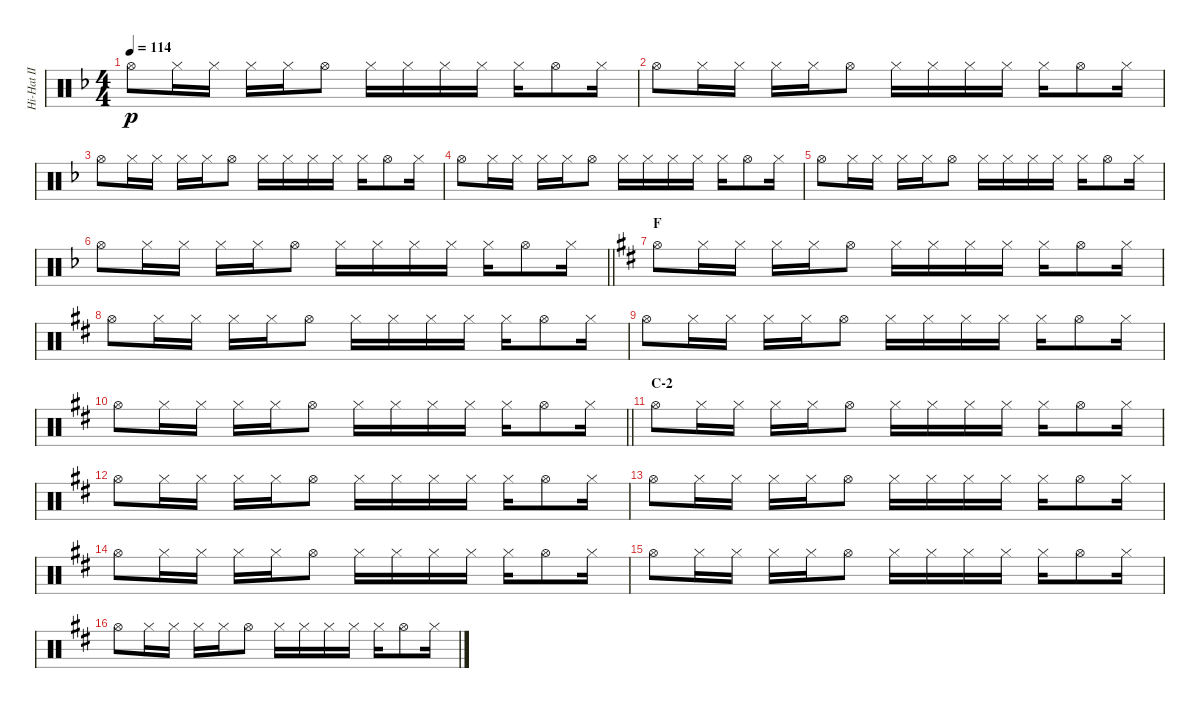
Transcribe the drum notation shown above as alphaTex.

\track ("Hi-Hat II" "Hi-Hat II") {instrument percussion}
\staff {score}
\articulation defaults
\ts (4 4)
\tempo 114
\clef neutral
\ks f "Hi-Hat (open)".8{dy p} "Hi-Hat (closed)".16 "Hi-Hat (closed)".16 "Hi-Hat (closed)".16 "Hi-Hat (closed)".16 "Hi-Hat (open)".8 "Hi-Hat (closed)".16 "Hi-Hat (closed)".16 "Hi-Hat (closed)".16 "Hi-Hat (closed)".16 "Hi-Hat (closed)".16 "Hi-Hat (open)".8 "Hi-Hat (closed)".16
|
"Hi-Hat (open)".8 "Hi-Hat (closed)".16 "Hi-Hat (closed)".16 "Hi-Hat (closed)".16 "Hi-Hat (closed)".16 "Hi-Hat (open)".8 "Hi-Hat (closed)".16 "Hi-Hat (closed)".16 "Hi-Hat (closed)".16 "Hi-Hat (closed)".16 "Hi-Hat (closed)".16 "Hi-Hat (open)".8 "Hi-Hat (closed)".16 |
"Hi-Hat (open)".8 "Hi-Hat (closed)".16 "Hi-Hat (closed)".16 "Hi-Hat (closed)".16 "Hi-Hat (closed)".16 "Hi-Hat (open)".8 "Hi-Hat (closed)".16 "Hi-Hat (closed)".16 "Hi-Hat (closed)".16 "Hi-Hat (closed)".16 "Hi-Hat (closed)".16 "Hi-Hat (open)".8 "Hi-Hat (closed)".16 |
"Hi-Hat (open)".8 "Hi-Hat (closed)".16 "Hi-Hat (closed)".16 "Hi-Hat (closed)".16 "Hi-Hat (closed)".16 "Hi-Hat (open)".8 "Hi-Hat (closed)".16 "Hi-Hat (closed)".16 "Hi-Hat (closed)".16 "Hi-Hat (closed)".16 "Hi-Hat (closed)".16 "Hi-Hat (open)".8 "Hi-Hat (closed)".16 |
"Hi-Hat (open)".8 "Hi-Hat (closed)".16 "Hi-Hat (closed)".16 "Hi-Hat (closed)".16 "Hi-Hat (closed)".16 "Hi-Hat (open)".8 "Hi-Hat (closed)".16 "Hi-Hat (closed)".16 "Hi-Hat (closed)".16 "Hi-Hat (closed)".16 "Hi-Hat (closed)".16 "Hi-Hat (open)".8 "Hi-Hat (closed)".16 |
\barLineRight lightlight "Hi-Hat (open)".8 "Hi-Hat (closed)".16 "Hi-Hat (closed)".16 "Hi-Hat (closed)".16 "Hi-Hat (closed)".16 "Hi-Hat (open)".8 "Hi-Hat (closed)".16 "Hi-Hat (closed)".16 "Hi-Hat (closed)".16 "Hi-Hat (closed)".16 "Hi-Hat (closed)".16 "Hi-Hat (open)".8 "Hi-Hat (closed)".16
|
\section ("" "F")
\ks d "Hi-Hat (open)".8 "Hi-Hat (closed)".16 "Hi-Hat (closed)".16 "Hi-Hat (closed)".16 "Hi-Hat (closed)".16 "Hi-Hat (open)".8 "Hi-Hat (closed)".16 "Hi-Hat (closed)".16 "Hi-Hat (closed)".16 "Hi-Hat (closed)".16 "Hi-Hat (closed)".16 "Hi-Hat (open)".8 "Hi-Hat (closed)".16
|
"Hi-Hat (open)".8 "Hi-Hat (closed)".16 "Hi-Hat (closed)".16 "Hi-Hat (closed)".16 "Hi-Hat (closed)".16 "Hi-Hat (open)".8 "Hi-Hat (closed)".16 "Hi-Hat (closed)".16 "Hi-Hat (closed)".16 "Hi-Hat (closed)".16 "Hi-Hat (closed)".16 "Hi-Hat (open)".8 "Hi-Hat (closed)".16 |
"Hi-Hat (open)".8 "Hi-Hat (closed)".16 "Hi-Hat (closed)".16 "Hi-Hat (closed)".16 "Hi-Hat (closed)".16 "Hi-Hat (open)".8 "Hi-Hat (closed)".16 "Hi-Hat (closed)".16 "Hi-Hat (closed)".16 "Hi-Hat (closed)".16 "Hi-Hat (closed)".16 "Hi-Hat (open)".8 "Hi-Hat (closed)".16 |
\barLineRight lightlight "Hi-Hat (open)".8 "Hi-Hat (closed)".16 "Hi-Hat (closed)".16 "Hi-Hat (closed)".16 "Hi-Hat (closed)".16 "Hi-Hat (open)".8 "Hi-Hat (closed)".16 "Hi-Hat (closed)".16 "Hi-Hat (closed)".16 "Hi-Hat (closed)".16 "Hi-Hat (closed)".16 "Hi-Hat (open)".8 "Hi-Hat (closed)".16
|
\section ("" "C-2")
"Hi-Hat (open)".8 "Hi-Hat (closed)".16 "Hi-Hat (closed)".16 "Hi-Hat (closed)".16 "Hi-Hat (closed)".16 "Hi-Hat (open)".8 "Hi-Hat (closed)".16 "Hi-Hat (closed)".16 "Hi-Hat (closed)".16 "Hi-Hat (closed)".16 "Hi-Hat (closed)".16 "Hi-Hat (open)".8 "Hi-Hat (closed)".16 |
"Hi-Hat (open)".8 "Hi-Hat (closed)".16 "Hi-Hat (closed)".16 "Hi-Hat (closed)".16 "Hi-Hat (closed)".16 "Hi-Hat (open)".8 "Hi-Hat (closed)".16 "Hi-Hat (closed)".16 "Hi-Hat (closed)".16 "Hi-Hat (closed)".16 "Hi-Hat (closed)".16 "Hi-Hat (open)".8 "Hi-Hat (closed)".16 |
"Hi-Hat (open)".8 "Hi-Hat (closed)".16 "Hi-Hat (closed)".16 "Hi-Hat (closed)".16 "Hi-Hat (closed)".16 "Hi-Hat (open)".8 "Hi-Hat (closed)".16 "Hi-Hat (closed)".16 "Hi-Hat (closed)".16 "Hi-Hat (closed)".16 "Hi-Hat (closed)".16 "Hi-Hat (open)".8 "Hi-Hat (closed)".16 |
"Hi-Hat (open)".8 "Hi-Hat (closed)".16 "Hi-Hat (closed)".16 "Hi-Hat (closed)".16 "Hi-Hat (closed)".16 "Hi-Hat (open)".8 "Hi-Hat (closed)".16 "Hi-Hat (closed)".16 "Hi-Hat (closed)".16 "Hi-Hat (closed)".16 "Hi-Hat (closed)".16 "Hi-Hat (open)".8 "Hi-Hat (closed)".16 |
"Hi-Hat (open)".8 "Hi-Hat (closed)".16 "Hi-Hat (closed)".16 "Hi-Hat (closed)".16 "Hi-Hat (closed)".16 "Hi-Hat (open)".8 "Hi-Hat (closed)".16 "Hi-Hat (closed)".16 "Hi-Hat (closed)".16 "Hi-Hat (closed)".16 "Hi-Hat (closed)".16 "Hi-Hat (open)".8 "Hi-Hat (closed)".16 |
"Hi-Hat (open)".8 "Hi-Hat (closed)".16 "Hi-Hat (closed)".16 "Hi-Hat (closed)".16 "Hi-Hat (closed)".16 "Hi-Hat (open)".8 "Hi-Hat (closed)".16 "Hi-Hat (closed)".16 "Hi-Hat (closed)".16 "Hi-Hat (closed)".16 "Hi-Hat (closed)".16 "Hi-Hat (open)".8 "Hi-Hat (closed)".16
